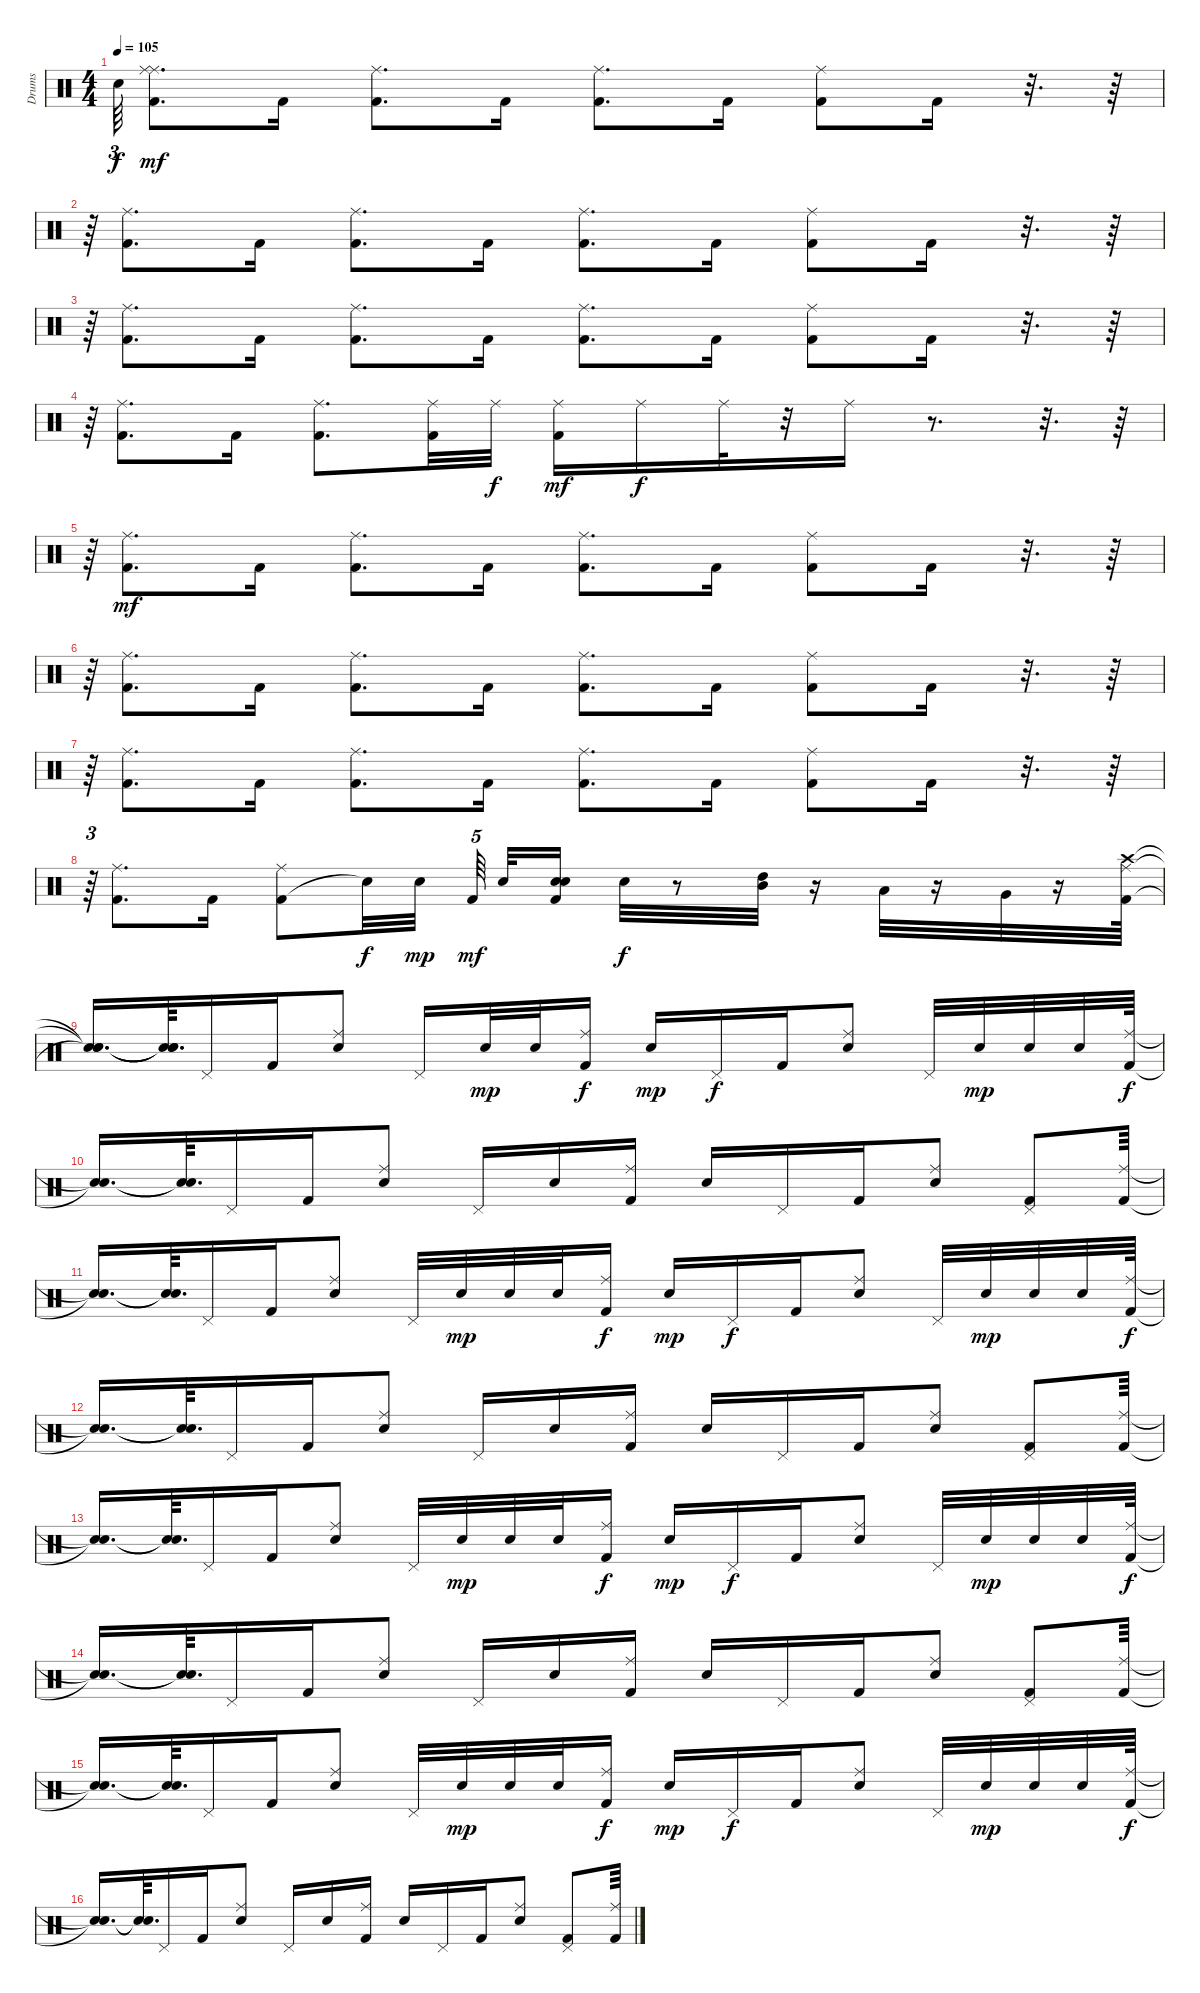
\track ("Drums" "Drums") {instrument percussion}
\staff {score}
\articulation defaults
\ts (4 4)
\tempo 105
\clef neutral
\ks c "Snare (hit)"{t}.64{tu (3 2) dy f}
("Ride (middle)" "Kick (hit) 2" "Ride (middle)").8{d dy mf} "Kick (hit) 2".16 ("Kick (hit) 2" "Ride (middle)").8{d} "Kick (hit) 2".16 ("Kick (hit) 2" "Ride (middle)").8{d} "Kick (hit) 2".16 ("Kick (hit) 2" "Ride (middle)").8 "Kick (hit) 2".16 r.32{d} r.64 |
r.64{tu (3 2)} ("Kick (hit) 2" "Ride (middle)").8{d} "Kick (hit) 2".16 ("Kick (hit) 2" "Ride (middle)").8{d} "Kick (hit) 2".16 ("Kick (hit) 2" "Ride (middle)").8{d} "Kick (hit) 2".16 ("Kick (hit) 2" "Ride (middle)").8 "Kick (hit) 2".16 r.32{d} r.64 |
r.64{tu (3 2)} ("Kick (hit) 2" "Ride (middle)").8{d} "Kick (hit) 2".16 ("Kick (hit) 2" "Ride (middle)").8{d} "Kick (hit) 2".16 ("Kick (hit) 2" "Ride (middle)").8{d} "Kick (hit) 2".16 ("Kick (hit) 2" "Ride (middle)").8 "Kick (hit) 2".16 r.32{d} r.64 |
r.64{tu (3 2)} ("Kick (hit) 2" "Ride (middle)").8{d} "Kick (hit) 2".16 ("Kick (hit) 2" "Ride (middle)").8{d} ("Kick (hit) 2" "Ride (middle)").32 "Ride (middle)".32{dy f} ("Kick (hit) 2" "Ride (middle)").16{dy mf} "Ride (middle)".16{dy f} "Ride (middle)".32 r.32 "Ride (middle)".16 r.8{d} r.32{d} r.64 |
r.64{tu (3 2)} ("Kick (hit) 2" "Ride (middle)").8{d dy mf} "Kick (hit) 2".16 ("Kick (hit) 2" "Ride (middle)").8{d} "Kick (hit) 2".16 ("Kick (hit) 2" "Ride (middle)").8{d} "Kick (hit) 2".16 ("Kick (hit) 2" "Ride (middle)").8 "Kick (hit) 2".16 r.32{d} r.64 |
r.64{tu (3 2)} ("Kick (hit) 2" "Ride (middle)").8{d} "Kick (hit) 2".16 ("Kick (hit) 2" "Ride (middle)").8{d} "Kick (hit) 2".16 ("Kick (hit) 2" "Ride (middle)").8{d} "Kick (hit) 2".16 ("Kick (hit) 2" "Ride (middle)").8 "Kick (hit) 2".16 r.32{d} r.64 |
r.64{tu (3 2)} ("Kick (hit) 2" "Ride (middle)").8{d} "Kick (hit) 2".16 ("Kick (hit) 2" "Ride (middle)").8{d} "Kick (hit) 2".16 ("Kick (hit) 2" "Ride (middle)").8{d} "Kick (hit) 2".16 ("Kick (hit) 2" "Ride (middle)").8 "Kick (hit) 2".16 r.32{d} r.64 |
r.64{tu (3 2)} ("Kick (hit) 2" "Ride (middle)").8{d} "Kick (hit) 2".16 ("Kick (hit) 2" "Ride (middle)").8 "Snare (hit)"{t}.32{dy f} "Electric Snare (hit)".32{dy mp} "Kick (hit) 2".64{tu (5 4) dy mf} "Electric Snare (hit)".32 ("Electric Snare (hit)" "Kick (hit) 2" "Electric Snare (hit)").16 "Electric Snare (hit)".32{dy f} r.8 ("High Tom (hit)" "Mid Tom (hit)").32 r.16 "Low Tom (hit)".32 r.16 "Very Low Tom (hit)".32 r.16 ("Kick (hit) 2" "Ride (middle)" "Crash high (hit)").64 |
("Snare (hit)"{t} "Snare (hit)"{t} "Snare (hit)"{t}).16{d} ("Snare (hit)"{t} "Snare (hit)"{t} "Snare (hit)"{t}).64{d} "Pedal Hi-Hat (hit)".16 "Kick (hit) 2".16 ("Electric Snare (hit)" "Ride (middle)").8 "Pedal Hi-Hat (hit)".16 "Electric Snare (hit)".32{dy mp} "Electric Snare (hit)".32 ("Kick (hit) 2" "Ride (middle)").16{dy f} "Electric Snare (hit)".16{dy mp} "Pedal Hi-Hat (hit)".16{dy f} "Kick (hit) 2".16 ("Electric Snare (hit)" "Ride (middle)").8 "Pedal Hi-Hat (hit)".32 "Electric Snare (hit)".32{dy mp} "Electric Snare (hit)".32 "Electric Snare (hit)".32 ("Kick (hit) 2" "Ride (middle)").64{dy f} |
("Snare (hit)"{t} "Snare (hit)"{t}).16{d} ("Snare (hit)"{t} "Snare (hit)"{t}).64{d} "Pedal Hi-Hat (hit)".16 "Kick (hit) 2".16 ("Electric Snare (hit)" "Ride (middle)").8 "Pedal Hi-Hat (hit)".16 "Electric Snare (hit)".16 ("Kick (hit) 2" "Ride (middle)").16 "Electric Snare (hit)".16 "Pedal Hi-Hat (hit)".16 "Kick (hit) 2".16 ("Electric Snare (hit)" "Ride (middle)").8 ("Kick (hit) 2" "Pedal Hi-Hat (hit)").8 ("Kick (hit) 2" "Ride (middle)").64 |
("Snare (hit)"{t} "Snare (hit)"{t}).16{d} ("Snare (hit)"{t} "Snare (hit)"{t}).64{d} "Pedal Hi-Hat (hit)".16 "Kick (hit) 2".16 ("Electric Snare (hit)" "Ride (middle)").8 "Pedal Hi-Hat (hit)".32 "Electric Snare (hit)".32{dy mp} "Electric Snare (hit)".32 "Electric Snare (hit)".32 ("Kick (hit) 2" "Ride (middle)").16{dy f} "Electric Snare (hit)".16{dy mp} "Pedal Hi-Hat (hit)".16{dy f} "Kick (hit) 2".16 ("Electric Snare (hit)" "Ride (middle)").8 "Pedal Hi-Hat (hit)".32 "Electric Snare (hit)".32{dy mp} "Electric Snare (hit)".32 "Electric Snare (hit)".32 ("Kick (hit) 2" "Ride (middle)").64{dy f} |
("Snare (hit)"{t} "Snare (hit)"{t}).16{d} ("Snare (hit)"{t} "Snare (hit)"{t}).64{d} "Pedal Hi-Hat (hit)".16 "Kick (hit) 2".16 ("Electric Snare (hit)" "Ride (middle)").8 "Pedal Hi-Hat (hit)".16 "Electric Snare (hit)".16 ("Kick (hit) 2" "Ride (middle)").16 "Electric Snare (hit)".16 "Pedal Hi-Hat (hit)".16 "Kick (hit) 2".16 ("Electric Snare (hit)" "Ride (middle)").8 ("Kick (hit) 2" "Pedal Hi-Hat (hit)").8 ("Kick (hit) 2" "Ride (middle)").64 |
("Snare (hit)"{t} "Snare (hit)"{t}).16{d} ("Snare (hit)"{t} "Snare (hit)"{t}).64{d} "Pedal Hi-Hat (hit)".16 "Kick (hit) 2".16 ("Electric Snare (hit)" "Ride (middle)").8 "Pedal Hi-Hat (hit)".32 "Electric Snare (hit)".32{dy mp} "Electric Snare (hit)".32 "Electric Snare (hit)".32 ("Kick (hit) 2" "Ride (middle)").16{dy f} "Electric Snare (hit)".16{dy mp} "Pedal Hi-Hat (hit)".16{dy f} "Kick (hit) 2".16 ("Electric Snare (hit)" "Ride (middle)").8 "Pedal Hi-Hat (hit)".32 "Electric Snare (hit)".32{dy mp} "Electric Snare (hit)".32 "Electric Snare (hit)".32 ("Kick (hit) 2" "Ride (middle)").64{dy f} |
("Snare (hit)"{t} "Snare (hit)"{t}).16{d} ("Snare (hit)"{t} "Snare (hit)"{t}).64{d} "Pedal Hi-Hat (hit)".16 "Kick (hit) 2".16 ("Electric Snare (hit)" "Ride (middle)").8 "Pedal Hi-Hat (hit)".16 "Electric Snare (hit)".16 ("Kick (hit) 2" "Ride (middle)").16 "Electric Snare (hit)".16 "Pedal Hi-Hat (hit)".16 "Kick (hit) 2".16 ("Electric Snare (hit)" "Ride (middle)").8 ("Kick (hit) 2" "Pedal Hi-Hat (hit)").8 ("Kick (hit) 2" "Ride (middle)").64 |
("Snare (hit)"{t} "Snare (hit)"{t}).16{d} ("Snare (hit)"{t} "Snare (hit)"{t}).64{d} "Pedal Hi-Hat (hit)".16 "Kick (hit) 2".16 ("Electric Snare (hit)" "Ride (middle)").8 "Pedal Hi-Hat (hit)".32 "Electric Snare (hit)".32{dy mp} "Electric Snare (hit)".32 "Electric Snare (hit)".32 ("Kick (hit) 2" "Ride (middle)").16{dy f} "Electric Snare (hit)".16{dy mp} "Pedal Hi-Hat (hit)".16{dy f} "Kick (hit) 2".16 ("Electric Snare (hit)" "Ride (middle)").8 "Pedal Hi-Hat (hit)".32 "Electric Snare (hit)".32{dy mp} "Electric Snare (hit)".32 "Electric Snare (hit)".32 ("Kick (hit) 2" "Ride (middle)").64{dy f} |
("Snare (hit)"{t} "Snare (hit)"{t}).16{d} ("Snare (hit)"{t} "Snare (hit)"{t}).64{d} "Pedal Hi-Hat (hit)".16 "Kick (hit) 2".16 ("Electric Snare (hit)" "Ride (middle)").8 "Pedal Hi-Hat (hit)".16 "Electric Snare (hit)".16 ("Kick (hit) 2" "Ride (middle)").16 "Electric Snare (hit)".16 "Pedal Hi-Hat (hit)".16 "Kick (hit) 2".16 ("Electric Snare (hit)" "Ride (middle)").8 ("Kick (hit) 2" "Pedal Hi-Hat (hit)").8 ("Kick (hit) 2" "Ride (middle)").64
